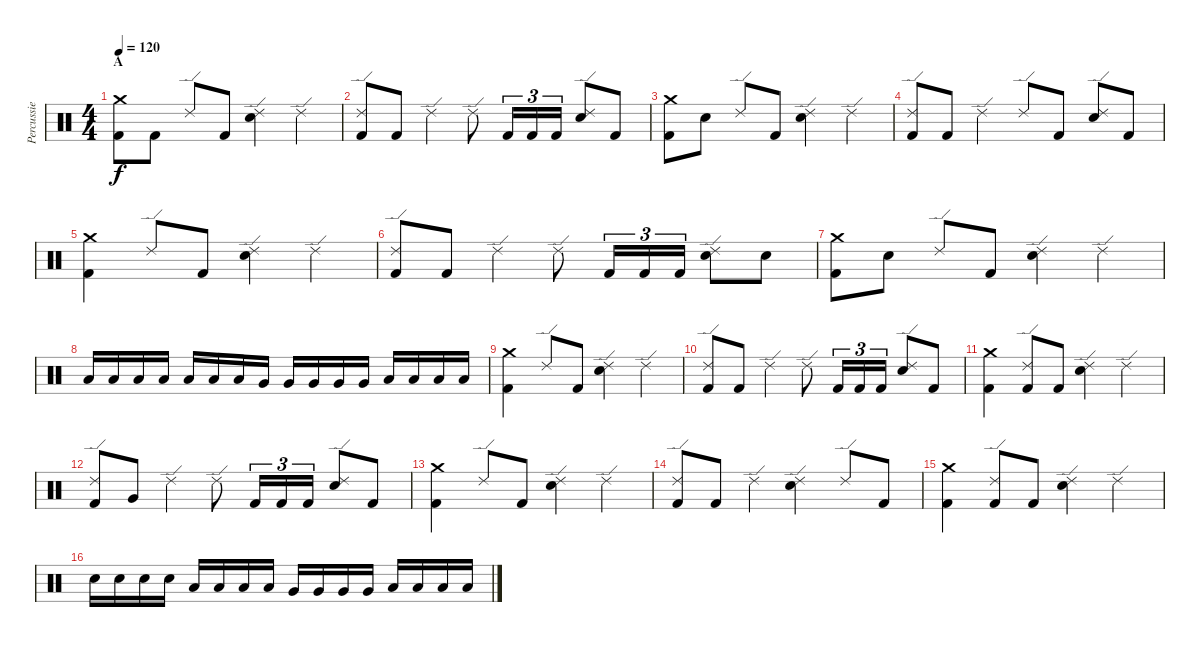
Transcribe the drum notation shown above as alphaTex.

\track ("Percussie" "Percussie") {instrument percussion}
\staff {score}
\articulation defaults
\ts (4 4)
\section ("" "A")
\tempo 120
\tempo 150
\tempo 120
\clef neutral
\ks c
("Crash medium (hit)" "Kick (hit) 2").8{dy f volume 13} "Kick (hit) 2".8 "Ride (edge) 2".8 "Kick (hit) 2".8 ("Ride (edge) 2" "Electric Snare (hit)").4 "Ride (edge) 2".4 |
("Ride (edge) 2" "Kick (hit) 2").8 "Kick (hit) 2".8 "Ride (edge) 2".4 "Ride (edge) 2".8 "Kick (hit) 2".16{tu (3 2)} "Kick (hit) 2".16{tu (3 2)} "Kick (hit) 2".16{tu (3 2)} ("Ride (edge) 2" "Electric Snare (hit)").8 "Kick (hit) 2".8 |
("Crash medium (hit)" "Kick (hit) 2").8 "Electric Snare (hit)".8 "Ride (edge) 2".8 "Kick (hit) 2".8 ("Ride (edge) 2" "Electric Snare (hit)").4 "Ride (edge) 2".4 |
("Ride (edge) 2" "Kick (hit) 2").8 "Kick (hit) 2".8 "Ride (edge) 2".4 "Ride (edge) 2".8 "Kick (hit) 2".8 ("Ride (edge) 2" "Electric Snare (hit)").8 "Kick (hit) 2".8 |
("Crash medium (hit)" "Kick (hit) 2").4 "Ride (edge) 2".8 "Kick (hit) 2".8 ("Ride (edge) 2" "Electric Snare (hit)").4 "Ride (edge) 2".4 |
("Ride (edge) 2" "Kick (hit) 2").8 "Kick (hit) 2".8 "Ride (edge) 2".4 "Ride (edge) 2".8 "Kick (hit) 2".16{tu (3 2)} "Kick (hit) 2".16{tu (3 2)} "Kick (hit) 2".16{tu (3 2)} ("Ride (edge) 2" "Electric Snare (hit)").8 "Electric Snare (hit)".8 |
("Crash medium (hit)" "Kick (hit) 2").8 "Electric Snare (hit)".8 "Ride (edge) 2".8 "Kick (hit) 2".8 ("Ride (edge) 2" "Electric Snare (hit)").4 "Ride (edge) 2".4 |
"Low Tom (hit)".16 "Low Tom (hit)".16 "Low Tom (hit)".16 "Low Tom (hit)".16 "Low Tom (hit)".16 "Low Tom (hit)".16 "Low Tom (hit)".16 "Very Low Tom (hit)".16 "Very Low Tom (hit)".16 "Very Low Tom (hit)".16 "Very Low Tom (hit)".16 "Very Low Tom (hit)".16 "Low Floor Tom (hit)".16 "Low Floor Tom (hit)".16 "Low Floor Tom (hit)".16 "Low Floor Tom (hit)".16 |
("Crash medium (hit)" "Kick (hit) 2").4 "Ride (edge) 2".8 "Kick (hit) 2".8 ("Ride (edge) 2" "Electric Snare (hit)").4 "Ride (edge) 2".4 |
("Ride (edge) 2" "Kick (hit) 2").8 "Kick (hit) 2".8 "Ride (edge) 2".4 "Ride (edge) 2".8 "Kick (hit) 2".16{tu (3 2)} "Kick (hit) 2".16{tu (3 2)} "Kick (hit) 2".16{tu (3 2)} ("Ride (edge) 2" "Electric Snare (hit)").8 "Kick (hit) 2".8 |
("Crash medium (hit)" "Kick (hit) 2").4 ("Ride (edge) 2" "Kick (hit) 2").8 "Kick (hit) 2".8 ("Ride (edge) 2" "Electric Snare (hit)").4 "Ride (edge) 2".4 |
("Ride (edge) 2" "Kick (hit) 2").8 "Very Low Tom (hit)".8 "Ride (edge) 2".4 "Ride (edge) 2".8 "Kick (hit) 2".16{tu (3 2)} "Kick (hit) 2".16{tu (3 2)} "Kick (hit) 2".16{tu (3 2)} ("Ride (edge) 2" "Electric Snare (hit)").8 "Kick (hit) 2".8 |
("Crash medium (hit)" "Kick (hit) 2").4 "Ride (edge) 2".8 "Kick (hit) 2".8 ("Ride (edge) 2" "Electric Snare (hit)").4 "Ride (edge) 2".4 |
("Ride (edge) 2" "Kick (hit) 2").8 "Kick (hit) 2".8 "Ride (edge) 2".4 ("Ride (edge) 2" "Electric Snare (hit)").4 "Ride (edge) 2".8 "Kick (hit) 2".8 |
("Crash medium (hit)" "Kick (hit) 2").4 ("Ride (edge) 2" "Kick (hit) 2").8 "Kick (hit) 2".8 ("Ride (edge) 2" "Electric Snare (hit)").4 "Ride (edge) 2".4 |
"Electric Snare (hit)".16 "Electric Snare (hit)".16 "Electric Snare (hit)".16 "Electric Snare (hit)".16 "Low Tom (hit)".16 "Low Tom (hit)".16 "Low Tom (hit)".16 "Low Tom (hit)".16 "Very Low Tom (hit)".16 "Very Low Tom (hit)".16 "Very Low Tom (hit)".16 "Very Low Tom (hit)".16 "Low Floor Tom (hit)".16 "Low Floor Tom (hit)".16 "Low Floor Tom (hit)".16 "Low Floor Tom (hit)".16
